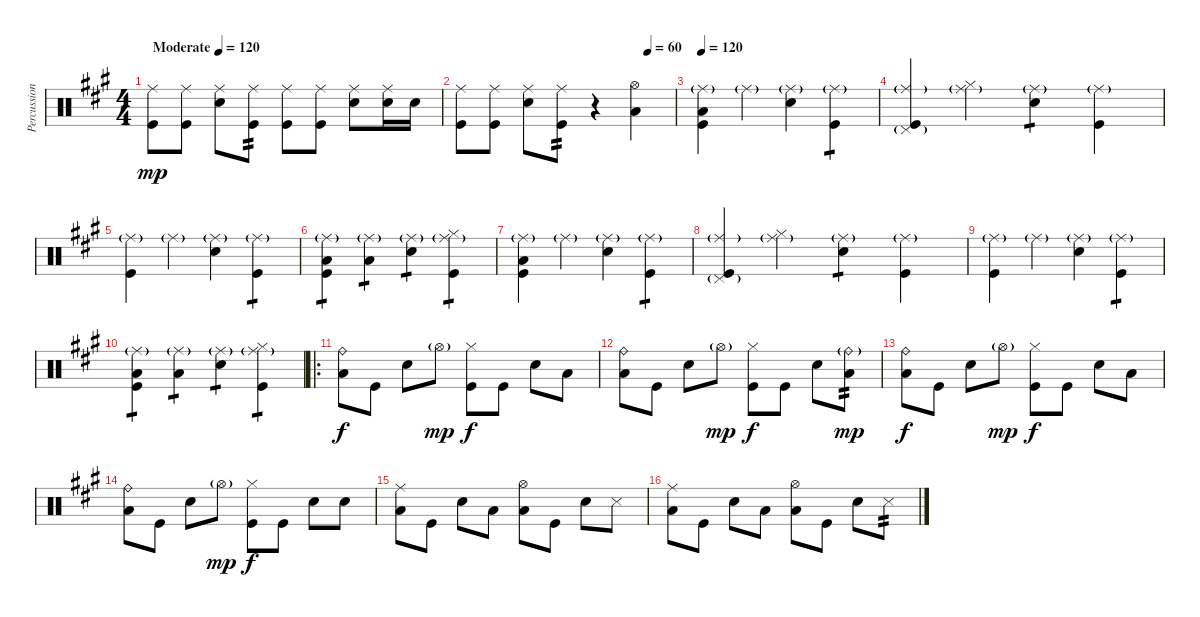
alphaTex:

\track ("Percussion" "Percussion") {instrument percussion}
\staff {score}
\articulation defaults
\ts (4 4)
\tempo (120 "Moderate")
\tempo 90
\tempo (120 "Moderate")
\clef neutral
\ks a
("Ride (middle)" "Kick (hit)").8{dy mp} ("Ride (middle)" "Kick (hit)").8 ("Ride (middle)" "Snare (hit) 2").8 ("Ride (middle)" "Kick (hit)").8{tp 2} ("Ride (middle)" "Kick (hit)").8 ("Ride (middle)" "Kick (hit)").8 ("Ride (middle)" "Snare (hit) 2").8 ("Ride (middle)" "Snare (hit) 2").16 "Snare (hit) 2".16 |
\tempo (60 0.875)
("Ride (middle)" "Kick (hit)").8 ("Ride (middle)" "Kick (hit)").8 ("Ride (middle)" "Snare (hit) 2").8 ("Ride (middle)" "Kick (hit)").8{tp 2} r.4 ("Hi-Hat (open)" "Low Floor Tom (hit)").4 |
\tempo 110
\tempo 120
("Ride (middle)"{g} "Low Floor Tom (hit)" "Kick (hit)").4 "Ride (middle)"{g}.4 ("Ride (middle)"{g} "Snare (hit) 2").4 ("Ride (middle)"{g} "Kick (hit)").4{tp 1} |
("Ride (middle)"{g} "Pedal Hi-Hat (hit)"{g} "Kick (hit)").4 ("Ride (middle)"{g} "Hi-Hat (closed)").4 ("Ride (middle)"{g} "Snare (hit) 2").4{tp 1} ("Ride (middle)"{g} "Kick (hit)").4 |
("Ride (middle)"{g} "Kick (hit)").4 "Ride (middle)"{g}.4 ("Ride (middle)"{g} "Snare (hit) 2").4 ("Ride (middle)"{g} "Kick (hit)").4{tp 1} |
("Ride (middle)"{g} "Low Tom (hit)" "Kick (hit)").4{tp 1} ("Ride (middle)"{g} "Low Floor Tom (hit)").4{tp 1} ("Ride (middle)"{g} "Snare (hit) 2").4{tp 1} ("Ride (middle)"{g} "Hi-Hat (closed)" "Kick (hit)").4{tp 1} |
("Ride (middle)"{g} "Low Floor Tom (hit)" "Kick (hit)").4 "Ride (middle)"{g}.4 ("Ride (middle)"{g} "Snare (hit) 2").4 ("Ride (middle)"{g} "Kick (hit)").4{tp 1} |
("Ride (middle)"{g} "Pedal Hi-Hat (hit)"{g} "Kick (hit)").4 ("Ride (middle)"{g} "Hi-Hat (closed)").4 ("Ride (middle)"{g} "Snare (hit) 2").4{tp 1} ("Ride (middle)"{g} "Kick (hit)").4 |
("Ride (middle)"{g} "Kick (hit)").4 "Ride (middle)"{g}.4 ("Ride (middle)"{g} "Snare (hit) 2").4 ("Ride (middle)"{g} "Kick (hit)").4{tp 1} |
("Ride (middle)"{g} "Low Tom (hit)" "Kick (hit)").4{tp 1} ("Ride (middle)"{g} "Low Floor Tom (hit)").4{tp 1} ("Ride (middle)"{g} "Snare (hit) 2").4{tp 1} ("Ride (middle)"{g} "Hi-Hat (closed)" "Kick (hit)").4{tp 1} |
\ro
("Ride (bell)" "Low Floor Tom (hit)").8{dy f} "Kick (hit)".8 "Snare (hit) 2".8 "Hi-Hat (open)"{g}.8{dy mp} ("Hi-Hat (closed)" "Kick (hit)").8{dy f} "Kick (hit)".8 "Snare (hit) 2".8 "Low Floor Tom (hit)".8 |
("Ride (bell)" "Low Floor Tom (hit)").8 "Kick (hit)".8 "Snare (hit) 2".8 "Hi-Hat (open)"{g}.8{dy mp} ("Hi-Hat (closed)" "Kick (hit)").8{dy f} "Kick (hit)".8 "Snare (hit) 2".8 ("Ride (bell)"{g} "Low Floor Tom (hit)").8{tp 2 dy mp} |
("Ride (bell)" "Low Floor Tom (hit)").8{dy f} "Kick (hit)".8 "Snare (hit) 2".8 "Hi-Hat (open)"{g}.8{dy mp} ("Hi-Hat (closed)" "Kick (hit)").8{dy f} "Kick (hit)".8 "Snare (hit) 2".8 "Low Floor Tom (hit)".8 |
("Ride (bell)" "Low Floor Tom (hit)").8 "Kick (hit)".8 "Snare (hit) 2".8 "Hi-Hat (open)"{g}.8{dy mp} ("Hi-Hat (closed)" "Kick (hit)").8{dy f} "Kick (hit)".8 "Snare (hit) 2".8 "Snare (hit) 2".8 |
("Ride (middle)" "Low Floor Tom (hit)").8 "Kick (hit)".8 "Snare (hit) 2".8 "Low Floor Tom (hit)".8 ("Hi-Hat (open)" "Low Floor Tom (hit)").8 "Kick (hit)".8 "Snare (hit) 2".8 "Snare (side stick) 3".8 |
("Ride (middle)" "Low Floor Tom (hit)").8 "Kick (hit)".8 "Snare (hit) 2".8 "Low Floor Tom (hit)".8 ("Hi-Hat (open)" "Low Floor Tom (hit)").8 "Kick (hit)".8 "Snare (hit) 2".8 "Snare (side stick) 3".8{tp 2}
